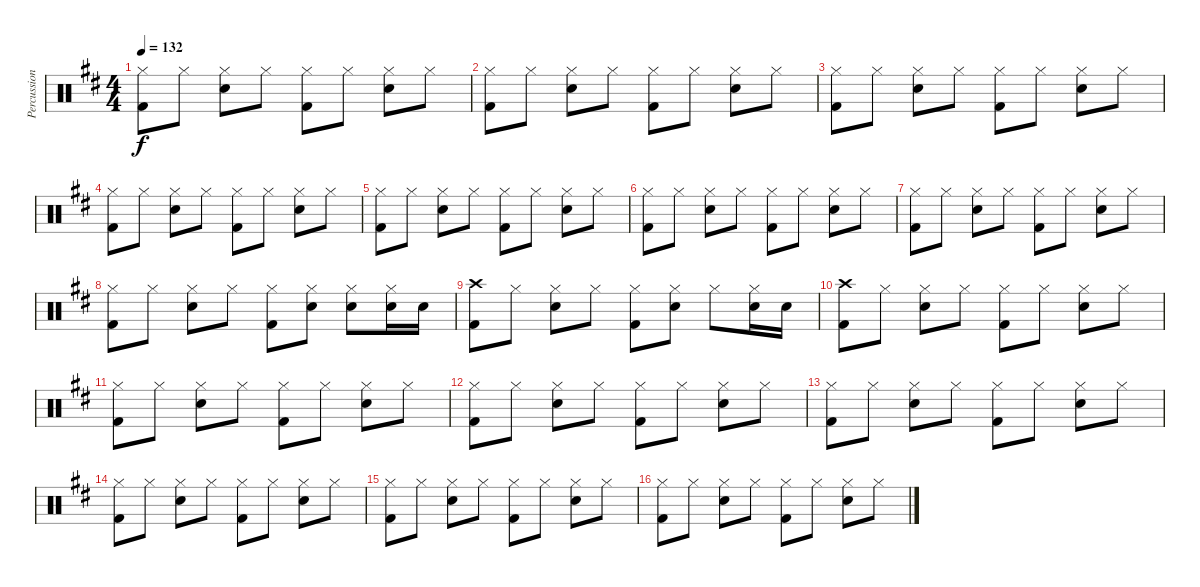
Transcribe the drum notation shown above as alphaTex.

\track ("Percussion" "Percussion") {instrument percussion}
\staff {score}
\articulation defaults
\ts (4 4)
\tempo 132
\clef neutral
\ks d
("Hi-Hat (closed)" "Kick (hit) 2").8{dy f} "Hi-Hat (closed)".8 ("Hi-Hat (closed)" "Electric Snare (hit)").8 "Hi-Hat (closed)".8 ("Hi-Hat (closed)" "Kick (hit) 2").8 "Hi-Hat (closed)".8 ("Hi-Hat (closed)" "Electric Snare (hit)").8 "Hi-Hat (closed)".8 |
("Hi-Hat (closed)" "Kick (hit) 2").8 "Hi-Hat (closed)".8 ("Hi-Hat (closed)" "Electric Snare (hit)").8 "Hi-Hat (closed)".8 ("Hi-Hat (closed)" "Kick (hit) 2").8 "Hi-Hat (closed)".8 ("Hi-Hat (closed)" "Electric Snare (hit)").8 "Hi-Hat (closed)".8 |
("Hi-Hat (closed)" "Kick (hit) 2").8 "Hi-Hat (closed)".8 ("Hi-Hat (closed)" "Electric Snare (hit)").8 "Hi-Hat (closed)".8 ("Hi-Hat (closed)" "Kick (hit) 2").8 "Hi-Hat (closed)".8 ("Hi-Hat (closed)" "Electric Snare (hit)").8 "Hi-Hat (closed)".8 |
("Hi-Hat (closed)" "Kick (hit) 2").8 "Hi-Hat (closed)".8 ("Hi-Hat (closed)" "Electric Snare (hit)").8 "Hi-Hat (closed)".8 ("Hi-Hat (closed)" "Kick (hit) 2").8 "Hi-Hat (closed)".8 ("Hi-Hat (closed)" "Electric Snare (hit)").8 "Hi-Hat (closed)".8 |
("Hi-Hat (closed)" "Kick (hit) 2").8 "Hi-Hat (closed)".8 ("Hi-Hat (closed)" "Electric Snare (hit)").8 "Hi-Hat (closed)".8 ("Hi-Hat (closed)" "Kick (hit) 2").8 "Hi-Hat (closed)".8 ("Hi-Hat (closed)" "Electric Snare (hit)").8 "Hi-Hat (closed)".8 |
("Hi-Hat (closed)" "Kick (hit) 2").8 "Hi-Hat (closed)".8 ("Hi-Hat (closed)" "Electric Snare (hit)").8 "Hi-Hat (closed)".8 ("Hi-Hat (closed)" "Kick (hit) 2").8 "Hi-Hat (closed)".8 ("Hi-Hat (closed)" "Electric Snare (hit)").8 "Hi-Hat (closed)".8 |
("Hi-Hat (closed)" "Kick (hit) 2").8 "Hi-Hat (closed)".8 ("Hi-Hat (closed)" "Electric Snare (hit)").8 "Hi-Hat (closed)".8 ("Hi-Hat (closed)" "Kick (hit) 2").8 "Hi-Hat (closed)".8 ("Hi-Hat (closed)" "Electric Snare (hit)").8 "Hi-Hat (closed)".8 |
("Hi-Hat (closed)" "Kick (hit) 2").8 "Hi-Hat (closed)".8 ("Hi-Hat (closed)" "Electric Snare (hit)").8 "Hi-Hat (closed)".8 ("Hi-Hat (closed)" "Kick (hit) 2").8 ("Hi-Hat (closed)" "Electric Snare (hit)").8 ("Hi-Hat (closed)" "Electric Snare (hit)").8 ("Hi-Hat (closed)" "Electric Snare (hit)").16 "Electric Snare (hit)".16 |
("Crash high (hit)" "Kick (hit) 2").8 "Hi-Hat (closed)".8 ("Hi-Hat (closed)" "Electric Snare (hit)").8 "Hi-Hat (closed)".8 ("Hi-Hat (closed)" "Kick (hit) 2").8 ("Hi-Hat (closed)" "Electric Snare (hit)").8 "Hi-Hat (closed)".8 ("Hi-Hat (closed)" "Electric Snare (hit)").16 "Electric Snare (hit)".16 |
("Crash high (hit)" "Kick (hit) 2").8 "Hi-Hat (closed)".8 ("Hi-Hat (closed)" "Electric Snare (hit)").8 "Hi-Hat (closed)".8 ("Hi-Hat (closed)" "Kick (hit) 2").8 "Hi-Hat (closed)".8 ("Hi-Hat (closed)" "Electric Snare (hit)").8 "Hi-Hat (closed)".8 |
("Hi-Hat (closed)" "Kick (hit) 2").8 "Hi-Hat (closed)".8 ("Hi-Hat (closed)" "Electric Snare (hit)").8 "Hi-Hat (closed)".8 ("Hi-Hat (closed)" "Kick (hit) 2").8 "Hi-Hat (closed)".8 ("Hi-Hat (closed)" "Electric Snare (hit)").8 "Hi-Hat (closed)".8 |
("Hi-Hat (closed)" "Kick (hit) 2").8 "Hi-Hat (closed)".8 ("Hi-Hat (closed)" "Electric Snare (hit)").8 "Hi-Hat (closed)".8 ("Hi-Hat (closed)" "Kick (hit) 2").8 "Hi-Hat (closed)".8 ("Hi-Hat (closed)" "Electric Snare (hit)").8 "Hi-Hat (closed)".8 |
("Hi-Hat (closed)" "Kick (hit) 2").8 "Hi-Hat (closed)".8 ("Hi-Hat (closed)" "Electric Snare (hit)").8 "Hi-Hat (closed)".8 ("Hi-Hat (closed)" "Kick (hit) 2").8 "Hi-Hat (closed)".8 ("Hi-Hat (closed)" "Electric Snare (hit)").8 "Hi-Hat (closed)".8 |
("Hi-Hat (closed)" "Kick (hit) 2").8 "Hi-Hat (closed)".8 ("Hi-Hat (closed)" "Electric Snare (hit)").8 "Hi-Hat (closed)".8 ("Hi-Hat (closed)" "Kick (hit) 2").8 "Hi-Hat (closed)".8 ("Hi-Hat (closed)" "Electric Snare (hit)").8 "Hi-Hat (closed)".8 |
("Hi-Hat (closed)" "Kick (hit) 2").8 "Hi-Hat (closed)".8 ("Hi-Hat (closed)" "Electric Snare (hit)").8 "Hi-Hat (closed)".8 ("Hi-Hat (closed)" "Kick (hit) 2").8 "Hi-Hat (closed)".8 ("Hi-Hat (closed)" "Electric Snare (hit)").8 "Hi-Hat (closed)".8 |
("Hi-Hat (closed)" "Kick (hit) 2").8 "Hi-Hat (closed)".8 ("Hi-Hat (closed)" "Electric Snare (hit)").8 "Hi-Hat (closed)".8 ("Hi-Hat (closed)" "Kick (hit) 2").8 "Hi-Hat (closed)".8 ("Hi-Hat (closed)" "Electric Snare (hit)").8 "Hi-Hat (closed)".8
